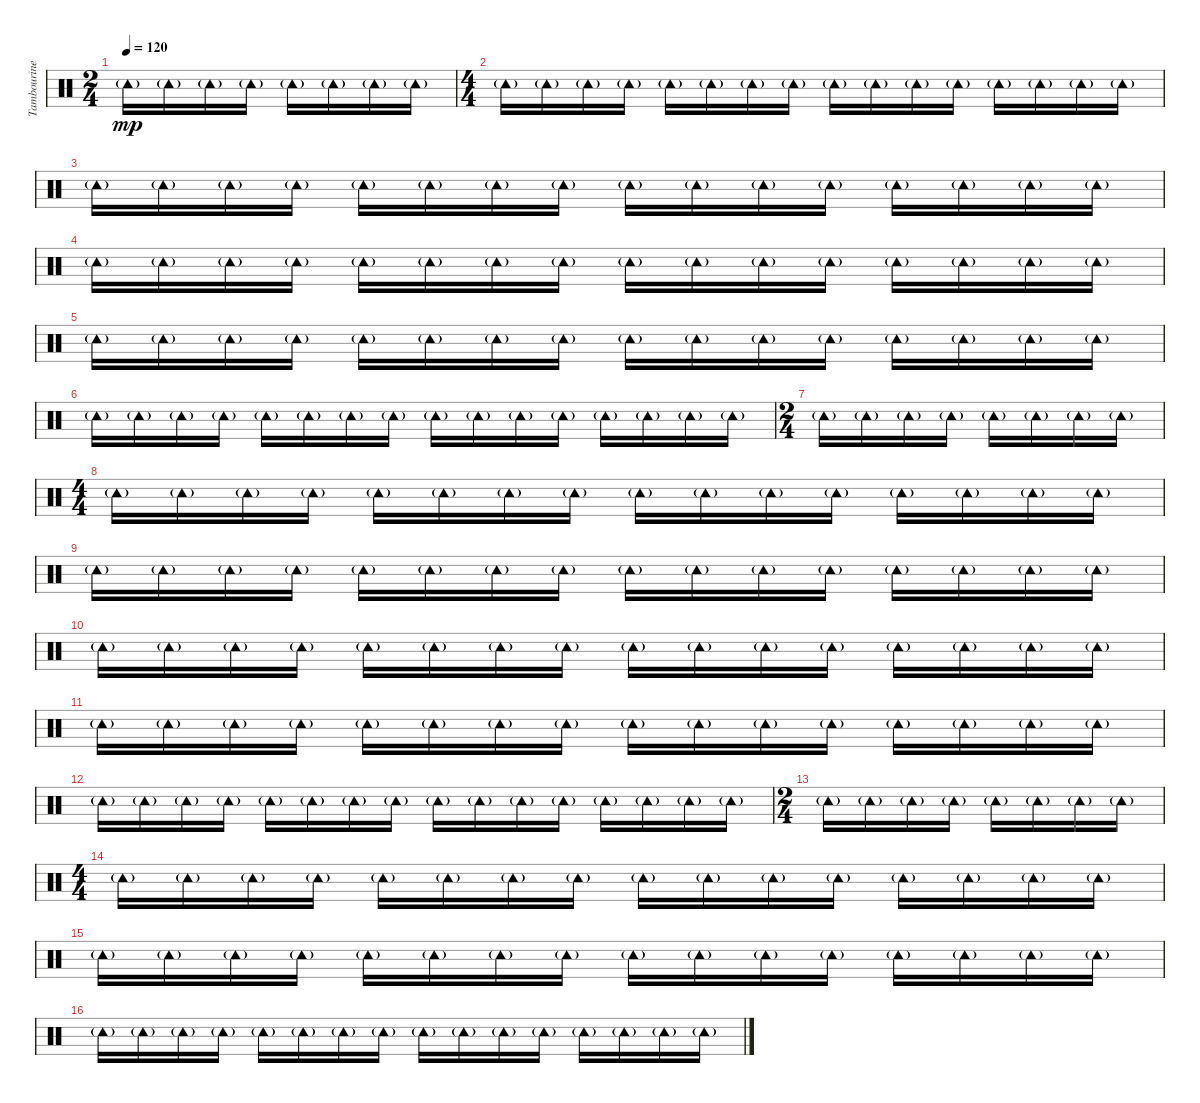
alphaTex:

\track ("Tambourine" "Tambourine") {instrument percussion}
\staff {score}
\articulation defaults
\ts (2 4)
\tempo 120
\clef neutral
\ks c "Tambourine (hit)"{g}.16{dy mp} "Tambourine (hit)"{g}.16 "Tambourine (hit)"{g}.16 "Tambourine (hit)"{g}.16 "Tambourine (hit)"{g}.16 "Tambourine (hit)"{g}.16 "Tambourine (hit)"{g}.16 "Tambourine (hit)"{g}.16
|
\ts (4 4)
"Tambourine (hit)"{g}.16 "Tambourine (hit)"{g}.16 "Tambourine (hit)"{g}.16 "Tambourine (hit)"{g}.16 "Tambourine (hit)"{g}.16 "Tambourine (hit)"{g}.16 "Tambourine (hit)"{g}.16 "Tambourine (hit)"{g}.16 "Tambourine (hit)"{g}.16 "Tambourine (hit)"{g}.16 "Tambourine (hit)"{g}.16 "Tambourine (hit)"{g}.16 "Tambourine (hit)"{g}.16 "Tambourine (hit)"{g}.16 "Tambourine (hit)"{g}.16 "Tambourine (hit)"{g}.16 |
"Tambourine (hit)"{g}.16 "Tambourine (hit)"{g}.16 "Tambourine (hit)"{g}.16 "Tambourine (hit)"{g}.16 "Tambourine (hit)"{g}.16 "Tambourine (hit)"{g}.16 "Tambourine (hit)"{g}.16 "Tambourine (hit)"{g}.16 "Tambourine (hit)"{g}.16 "Tambourine (hit)"{g}.16 "Tambourine (hit)"{g}.16 "Tambourine (hit)"{g}.16 "Tambourine (hit)"{g}.16 "Tambourine (hit)"{g}.16 "Tambourine (hit)"{g}.16 "Tambourine (hit)"{g}.16 |
"Tambourine (hit)"{g}.16 "Tambourine (hit)"{g}.16 "Tambourine (hit)"{g}.16 "Tambourine (hit)"{g}.16 "Tambourine (hit)"{g}.16 "Tambourine (hit)"{g}.16 "Tambourine (hit)"{g}.16 "Tambourine (hit)"{g}.16 "Tambourine (hit)"{g}.16 "Tambourine (hit)"{g}.16 "Tambourine (hit)"{g}.16 "Tambourine (hit)"{g}.16 "Tambourine (hit)"{g}.16 "Tambourine (hit)"{g}.16 "Tambourine (hit)"{g}.16 "Tambourine (hit)"{g}.16 |
"Tambourine (hit)"{g}.16 "Tambourine (hit)"{g}.16 "Tambourine (hit)"{g}.16 "Tambourine (hit)"{g}.16 "Tambourine (hit)"{g}.16 "Tambourine (hit)"{g}.16 "Tambourine (hit)"{g}.16 "Tambourine (hit)"{g}.16 "Tambourine (hit)"{g}.16 "Tambourine (hit)"{g}.16 "Tambourine (hit)"{g}.16 "Tambourine (hit)"{g}.16 "Tambourine (hit)"{g}.16 "Tambourine (hit)"{g}.16 "Tambourine (hit)"{g}.16 "Tambourine (hit)"{g}.16 |
"Tambourine (hit)"{g}.16 "Tambourine (hit)"{g}.16 "Tambourine (hit)"{g}.16 "Tambourine (hit)"{g}.16 "Tambourine (hit)"{g}.16 "Tambourine (hit)"{g}.16 "Tambourine (hit)"{g}.16 "Tambourine (hit)"{g}.16 "Tambourine (hit)"{g}.16 "Tambourine (hit)"{g}.16 "Tambourine (hit)"{g}.16 "Tambourine (hit)"{g}.16 "Tambourine (hit)"{g}.16 "Tambourine (hit)"{g}.16 "Tambourine (hit)"{g}.16 "Tambourine (hit)"{g}.16 |
\ts (2 4)
"Tambourine (hit)"{g}.16 "Tambourine (hit)"{g}.16 "Tambourine (hit)"{g}.16 "Tambourine (hit)"{g}.16 "Tambourine (hit)"{g}.16 "Tambourine (hit)"{g}.16 "Tambourine (hit)"{g}.16 "Tambourine (hit)"{g}.16 |
\ts (4 4)
"Tambourine (hit)"{g}.16 "Tambourine (hit)"{g}.16 "Tambourine (hit)"{g}.16 "Tambourine (hit)"{g}.16 "Tambourine (hit)"{g}.16 "Tambourine (hit)"{g}.16 "Tambourine (hit)"{g}.16 "Tambourine (hit)"{g}.16 "Tambourine (hit)"{g}.16 "Tambourine (hit)"{g}.16 "Tambourine (hit)"{g}.16 "Tambourine (hit)"{g}.16 "Tambourine (hit)"{g}.16 "Tambourine (hit)"{g}.16 "Tambourine (hit)"{g}.16 "Tambourine (hit)"{g}.16 |
"Tambourine (hit)"{g}.16 "Tambourine (hit)"{g}.16 "Tambourine (hit)"{g}.16 "Tambourine (hit)"{g}.16 "Tambourine (hit)"{g}.16 "Tambourine (hit)"{g}.16 "Tambourine (hit)"{g}.16 "Tambourine (hit)"{g}.16 "Tambourine (hit)"{g}.16 "Tambourine (hit)"{g}.16 "Tambourine (hit)"{g}.16 "Tambourine (hit)"{g}.16 "Tambourine (hit)"{g}.16 "Tambourine (hit)"{g}.16 "Tambourine (hit)"{g}.16 "Tambourine (hit)"{g}.16 |
"Tambourine (hit)"{g}.16 "Tambourine (hit)"{g}.16 "Tambourine (hit)"{g}.16 "Tambourine (hit)"{g}.16 "Tambourine (hit)"{g}.16 "Tambourine (hit)"{g}.16 "Tambourine (hit)"{g}.16 "Tambourine (hit)"{g}.16 "Tambourine (hit)"{g}.16 "Tambourine (hit)"{g}.16 "Tambourine (hit)"{g}.16 "Tambourine (hit)"{g}.16 "Tambourine (hit)"{g}.16 "Tambourine (hit)"{g}.16 "Tambourine (hit)"{g}.16 "Tambourine (hit)"{g}.16 |
"Tambourine (hit)"{g}.16 "Tambourine (hit)"{g}.16 "Tambourine (hit)"{g}.16 "Tambourine (hit)"{g}.16 "Tambourine (hit)"{g}.16 "Tambourine (hit)"{g}.16 "Tambourine (hit)"{g}.16 "Tambourine (hit)"{g}.16 "Tambourine (hit)"{g}.16 "Tambourine (hit)"{g}.16 "Tambourine (hit)"{g}.16 "Tambourine (hit)"{g}.16 "Tambourine (hit)"{g}.16 "Tambourine (hit)"{g}.16 "Tambourine (hit)"{g}.16 "Tambourine (hit)"{g}.16 |
"Tambourine (hit)"{g}.16 "Tambourine (hit)"{g}.16 "Tambourine (hit)"{g}.16 "Tambourine (hit)"{g}.16 "Tambourine (hit)"{g}.16 "Tambourine (hit)"{g}.16 "Tambourine (hit)"{g}.16 "Tambourine (hit)"{g}.16 "Tambourine (hit)"{g}.16 "Tambourine (hit)"{g}.16 "Tambourine (hit)"{g}.16 "Tambourine (hit)"{g}.16 "Tambourine (hit)"{g}.16 "Tambourine (hit)"{g}.16 "Tambourine (hit)"{g}.16 "Tambourine (hit)"{g}.16 |
\ts (2 4)
"Tambourine (hit)"{g}.16 "Tambourine (hit)"{g}.16 "Tambourine (hit)"{g}.16 "Tambourine (hit)"{g}.16 "Tambourine (hit)"{g}.16 "Tambourine (hit)"{g}.16 "Tambourine (hit)"{g}.16 "Tambourine (hit)"{g}.16 |
\ts (4 4)
"Tambourine (hit)"{g}.16 "Tambourine (hit)"{g}.16 "Tambourine (hit)"{g}.16 "Tambourine (hit)"{g}.16 "Tambourine (hit)"{g}.16 "Tambourine (hit)"{g}.16 "Tambourine (hit)"{g}.16 "Tambourine (hit)"{g}.16 "Tambourine (hit)"{g}.16 "Tambourine (hit)"{g}.16 "Tambourine (hit)"{g}.16 "Tambourine (hit)"{g}.16 "Tambourine (hit)"{g}.16 "Tambourine (hit)"{g}.16 "Tambourine (hit)"{g}.16 "Tambourine (hit)"{g}.16 |
"Tambourine (hit)"{g}.16 "Tambourine (hit)"{g}.16 "Tambourine (hit)"{g}.16 "Tambourine (hit)"{g}.16 "Tambourine (hit)"{g}.16 "Tambourine (hit)"{g}.16 "Tambourine (hit)"{g}.16 "Tambourine (hit)"{g}.16 "Tambourine (hit)"{g}.16 "Tambourine (hit)"{g}.16 "Tambourine (hit)"{g}.16 "Tambourine (hit)"{g}.16 "Tambourine (hit)"{g}.16 "Tambourine (hit)"{g}.16 "Tambourine (hit)"{g}.16 "Tambourine (hit)"{g}.16 |
"Tambourine (hit)"{g}.16 "Tambourine (hit)"{g}.16 "Tambourine (hit)"{g}.16 "Tambourine (hit)"{g}.16 "Tambourine (hit)"{g}.16 "Tambourine (hit)"{g}.16 "Tambourine (hit)"{g}.16 "Tambourine (hit)"{g}.16 "Tambourine (hit)"{g}.16 "Tambourine (hit)"{g}.16 "Tambourine (hit)"{g}.16 "Tambourine (hit)"{g}.16 "Tambourine (hit)"{g}.16 "Tambourine (hit)"{g}.16 "Tambourine (hit)"{g}.16 "Tambourine (hit)"{g}.16
